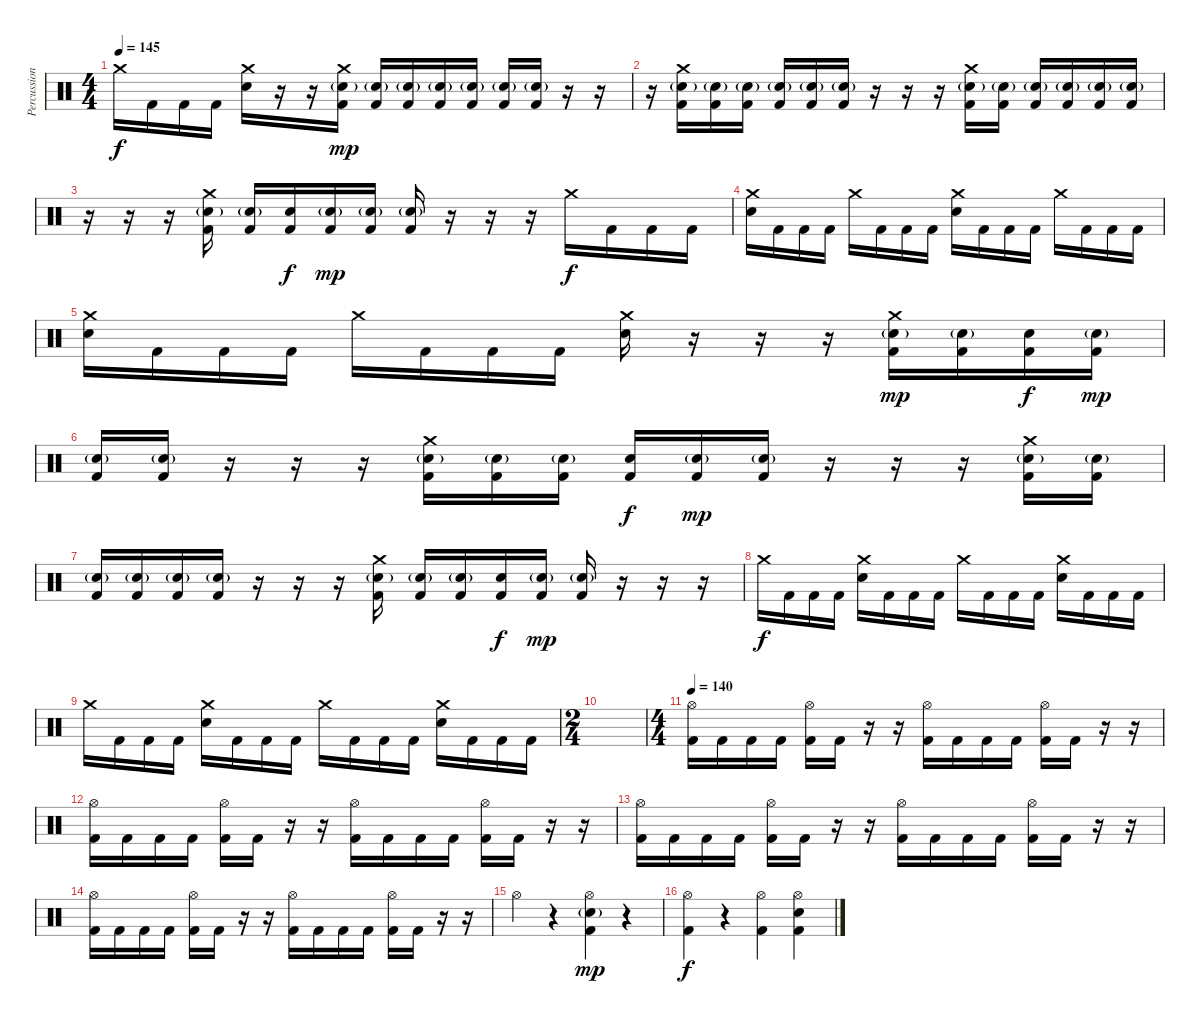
\track ("Percussion" "Percussion") {instrument percussion}
\staff {score}
\articulation defaults
\ts (4 4)
\tempo 145
\clef neutral
\ks c "Crash medium (hit)".16{dy f} "Kick (hit) 2".16 "Kick (hit) 2".16 "Kick (hit) 2".16
("Crash medium (hit)" "Electric Snare (hit)").16 r.16 r.16 ("Crash medium (hit)" "Snare (hit) 2"{g} "Kick (hit) 2").16{dy mp} ("Snare (hit) 2"{g} "Kick (hit) 2").16 ("Snare (hit) 2"{g} "Kick (hit) 2").16 ("Snare (hit) 2"{g} "Kick (hit) 2").16 ("Snare (hit) 2"{g} "Kick (hit) 2").16 ("Snare (hit) 2"{g} "Kick (hit) 2").16 ("Snare (hit) 2"{g} "Kick (hit) 2").16 r.16 r.16 |
r.16 ("Crash medium (hit)" "Snare (hit) 2"{g} "Kick (hit) 2").16 ("Snare (hit) 2"{g} "Kick (hit) 2").16 ("Snare (hit) 2"{g} "Kick (hit) 2").16 ("Snare (hit) 2"{g} "Kick (hit) 2").16 ("Snare (hit) 2"{g} "Kick (hit) 2").16 ("Snare (hit) 2"{g} "Kick (hit) 2").16 r.16 r.16 r.16 ("Crash medium (hit)" "Snare (hit) 2"{g} "Kick (hit) 2").16 ("Snare (hit) 2"{g} "Kick (hit) 2").16 ("Snare (hit) 2"{g} "Kick (hit) 2").16 ("Snare (hit) 2"{g} "Kick (hit) 2").16 ("Snare (hit) 2"{g} "Kick (hit) 2").16 ("Snare (hit) 2"{g} "Kick (hit) 2").16 |
r.16 r.16 r.16 ("Crash medium (hit)" "Snare (hit) 2"{g} "Kick (hit) 2").16 ("Snare (hit) 2"{g} "Kick (hit) 2").16 ("Snare (hit) 2" "Kick (hit) 2").16{dy f} ("Snare (hit) 2"{g} "Kick (hit) 2").16{dy mp} ("Snare (hit) 2"{g} "Kick (hit) 2").16 ("Snare (hit) 2"{g} "Kick (hit) 2").16 r.16 r.16 r.16 "Crash medium (hit)".16{dy f} "Kick (hit) 2".16 "Kick (hit) 2".16 "Kick (hit) 2".16 |
("Crash medium (hit)" "Electric Snare (hit)").16 "Kick (hit) 2".16 "Kick (hit) 2".16 "Kick (hit) 2".16 "Crash medium (hit)".16 "Kick (hit) 2".16 "Kick (hit) 2".16 "Kick (hit) 2".16 ("Crash medium (hit)" "Electric Snare (hit)").16 "Kick (hit) 2".16 "Kick (hit) 2".16 "Kick (hit) 2".16 "Crash medium (hit)".16 "Kick (hit) 2".16 "Kick (hit) 2".16 "Kick (hit) 2".16 |
("Crash medium (hit)" "Electric Snare (hit)").16 "Kick (hit) 2".16 "Kick (hit) 2".16 "Kick (hit) 2".16 "Crash medium (hit)".16 "Kick (hit) 2".16 "Kick (hit) 2".16 "Kick (hit) 2".16 ("Crash medium (hit)" "Electric Snare (hit)").16 r.16 r.16 r.16 ("Crash medium (hit)" "Snare (hit) 2"{g} "Kick (hit) 2").16{dy mp} ("Snare (hit) 2"{g} "Kick (hit) 2").16 ("Snare (hit) 2" "Kick (hit) 2").16{dy f} ("Snare (hit) 2"{g} "Kick (hit) 2").16{dy mp} |
("Snare (hit) 2"{g} "Kick (hit) 2").16 ("Snare (hit) 2"{g} "Kick (hit) 2").16 r.16 r.16 r.16 ("Crash medium (hit)" "Snare (hit) 2"{g} "Kick (hit) 2").16 ("Snare (hit) 2"{g} "Kick (hit) 2").16 ("Snare (hit) 2"{g} "Kick (hit) 2").16 ("Snare (hit) 2" "Kick (hit) 2").16{dy f} ("Snare (hit) 2"{g} "Kick (hit) 2").16{dy mp} ("Snare (hit) 2"{g} "Kick (hit) 2").16 r.16 r.16 r.16 ("Crash medium (hit)" "Snare (hit) 2"{g} "Kick (hit) 2").16 ("Snare (hit) 2"{g} "Kick (hit) 2").16 |
("Snare (hit) 2"{g} "Kick (hit) 2").16 ("Snare (hit) 2"{g} "Kick (hit) 2").16 ("Snare (hit) 2"{g} "Kick (hit) 2").16 ("Snare (hit) 2"{g} "Kick (hit) 2").16 r.16 r.16 r.16 ("Crash medium (hit)" "Snare (hit) 2"{g} "Kick (hit) 2").16 ("Snare (hit) 2"{g} "Kick (hit) 2").16 ("Snare (hit) 2"{g} "Kick (hit) 2").16 ("Snare (hit) 2" "Kick (hit) 2").16{dy f} ("Snare (hit) 2"{g} "Kick (hit) 2").16{dy mp} ("Snare (hit) 2"{g} "Kick (hit) 2").16 r.16 r.16 r.16 |
"Crash medium (hit)".16{dy f} "Kick (hit) 2".16 "Kick (hit) 2".16 "Kick (hit) 2".16 ("Crash medium (hit)" "Electric Snare (hit)").16 "Kick (hit) 2".16 "Kick (hit) 2".16 "Kick (hit) 2".16 "Crash medium (hit)".16 "Kick (hit) 2".16 "Kick (hit) 2".16 "Kick (hit) 2".16 ("Crash medium (hit)" "Electric Snare (hit)").16 "Kick (hit) 2".16 "Kick (hit) 2".16 "Kick (hit) 2".16 |
"Crash medium (hit)".16 "Kick (hit) 2".16 "Kick (hit) 2".16 "Kick (hit) 2".16 ("Crash medium (hit)" "Electric Snare (hit)").16 "Kick (hit) 2".16 "Kick (hit) 2".16 "Kick (hit) 2".16 "Crash medium (hit)".16 "Kick (hit) 2".16 "Kick (hit) 2".16 "Kick (hit) 2".16 ("Crash medium (hit)" "Electric Snare (hit)").16 "Kick (hit) 2".16 "Kick (hit) 2".16 "Kick (hit) 2".16 |
\ts (2 4)
|
\ts (4 4)
\tempo 140
("Hi-Hat (open)" "Kick (hit) 2").16 "Kick (hit) 2".16 "Kick (hit) 2".16 "Kick (hit) 2".16 ("Hi-Hat (open)" "Kick (hit) 2").16 "Kick (hit) 2".16 r.16 r.16 ("Hi-Hat (open)" "Kick (hit) 2").16 "Kick (hit) 2".16 "Kick (hit) 2".16 "Kick (hit) 2".16 ("Hi-Hat (open)" "Kick (hit) 2").16 "Kick (hit) 2".16 r.16 r.16 |
("Hi-Hat (open)" "Kick (hit) 2").16 "Kick (hit) 2".16 "Kick (hit) 2".16 "Kick (hit) 2".16 ("Hi-Hat (open)" "Kick (hit) 2").16 "Kick (hit) 2".16 r.16 r.16 ("Hi-Hat (open)" "Kick (hit) 2").16 "Kick (hit) 2".16 "Kick (hit) 2".16 "Kick (hit) 2".16 ("Hi-Hat (open)" "Kick (hit) 2").16 "Kick (hit) 2".16 r.16 r.16 |
("Hi-Hat (open)" "Kick (hit) 2").16 "Kick (hit) 2".16 "Kick (hit) 2".16 "Kick (hit) 2".16 ("Hi-Hat (open)" "Kick (hit) 2").16 "Kick (hit) 2".16 r.16 r.16 ("Hi-Hat (open)" "Kick (hit) 2").16 "Kick (hit) 2".16 "Kick (hit) 2".16 "Kick (hit) 2".16 ("Hi-Hat (open)" "Kick (hit) 2").16 "Kick (hit) 2".16 r.16 r.16 |
("Hi-Hat (open)" "Kick (hit) 2").16 "Kick (hit) 2".16 "Kick (hit) 2".16 "Kick (hit) 2".16 ("Hi-Hat (open)" "Kick (hit) 2").16 "Kick (hit) 2".16 r.16 r.16 ("Hi-Hat (open)" "Kick (hit) 2").16 "Kick (hit) 2".16 "Kick (hit) 2".16 "Kick (hit) 2".16 ("Hi-Hat (open)" "Kick (hit) 2").16 "Kick (hit) 2".16 r.16 r.16 |
"Hi-Hat (open)".4 r.4 ("Hi-Hat (open)" "Snare (hit) 2"{g} "Kick (hit) 2").4{dy mp} r.4 |
("Hi-Hat (open)" "Kick (hit) 2").4{dy f} r.4 ("Hi-Hat (open)" "Kick (hit) 2").4 ("Hi-Hat (open)" "Snare (hit) 2" "Kick (hit) 2").4
